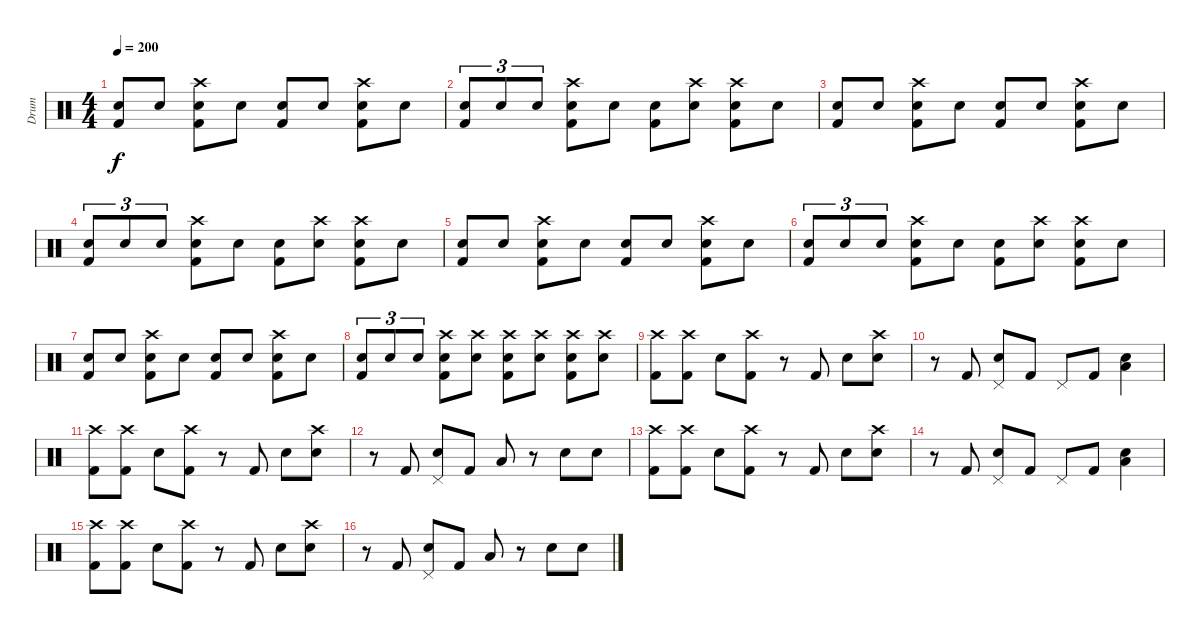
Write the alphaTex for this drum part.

\track ("Drum" "Drum") {instrument percussion}
\staff {score}
\articulation defaults
\ts (4 4)
\tempo 200
\clef neutral
\ks c
("Electric Snare (hit)" "Kick (hit) 2").8{dy f} "Electric Snare (hit)".8 ("Crash high (hit)" "Electric Snare (hit)" "Kick (hit) 2").8 "Electric Snare (hit)".8 ("Electric Snare (hit)" "Kick (hit) 2").8 "Electric Snare (hit)".8 ("Crash high (hit)" "Electric Snare (hit)" "Kick (hit) 2").8 "Electric Snare (hit)".8 |
("Electric Snare (hit)" "Kick (hit) 2").8{tu (3 2)} "Electric Snare (hit)".8{tu (3 2)} "Electric Snare (hit)".8{tu (3 2)} ("Crash high (hit)" "Electric Snare (hit)" "Kick (hit) 2").8 "Electric Snare (hit)".8 ("Electric Snare (hit)" "Kick (hit) 2").8 ("Crash high (hit)" "Electric Snare (hit)").8 ("Crash high (hit)" "Electric Snare (hit)" "Kick (hit) 2").8 "Electric Snare (hit)".8 |
("Electric Snare (hit)" "Kick (hit) 2").8 "Electric Snare (hit)".8 ("Crash high (hit)" "Electric Snare (hit)" "Kick (hit) 2").8 "Electric Snare (hit)".8 ("Electric Snare (hit)" "Kick (hit) 2").8 "Electric Snare (hit)".8 ("Crash high (hit)" "Electric Snare (hit)" "Kick (hit) 2").8 "Electric Snare (hit)".8 |
("Electric Snare (hit)" "Kick (hit) 2").8{tu (3 2)} "Electric Snare (hit)".8{tu (3 2)} "Electric Snare (hit)".8{tu (3 2)} ("Crash high (hit)" "Electric Snare (hit)" "Kick (hit) 2").8 "Electric Snare (hit)".8 ("Electric Snare (hit)" "Kick (hit) 2").8 ("Crash high (hit)" "Electric Snare (hit)").8 ("Crash high (hit)" "Electric Snare (hit)" "Kick (hit) 2").8 "Electric Snare (hit)".8 |
("Electric Snare (hit)" "Kick (hit) 2").8 "Electric Snare (hit)".8 ("Crash high (hit)" "Electric Snare (hit)" "Kick (hit) 2").8 "Electric Snare (hit)".8 ("Electric Snare (hit)" "Kick (hit) 2").8 "Electric Snare (hit)".8 ("Crash high (hit)" "Electric Snare (hit)" "Kick (hit) 2").8 "Electric Snare (hit)".8 |
("Electric Snare (hit)" "Kick (hit) 2").8{tu (3 2)} "Electric Snare (hit)".8{tu (3 2)} "Electric Snare (hit)".8{tu (3 2)} ("Crash high (hit)" "Electric Snare (hit)" "Kick (hit) 2").8 "Electric Snare (hit)".8 ("Electric Snare (hit)" "Kick (hit) 2").8 ("Crash high (hit)" "Electric Snare (hit)").8 ("Crash high (hit)" "Electric Snare (hit)" "Kick (hit) 2").8 "Electric Snare (hit)".8 |
("Electric Snare (hit)" "Kick (hit) 2").8 "Electric Snare (hit)".8 ("Crash high (hit)" "Electric Snare (hit)" "Kick (hit) 2").8 "Electric Snare (hit)".8 ("Electric Snare (hit)" "Kick (hit) 2").8 "Electric Snare (hit)".8 ("Crash high (hit)" "Electric Snare (hit)" "Kick (hit) 2").8 "Electric Snare (hit)".8 |
("Electric Snare (hit)" "Kick (hit) 2").8{tu (3 2)} "Electric Snare (hit)".8{tu (3 2)} "Electric Snare (hit)".8{tu (3 2)} ("Crash high (hit)" "Electric Snare (hit)" "Kick (hit) 2").8 ("Crash high (hit)" "Electric Snare (hit)").8 ("Crash high (hit)" "Electric Snare (hit)" "Kick (hit) 2").8 ("Crash high (hit)" "Electric Snare (hit)").8 ("Crash high (hit)" "Electric Snare (hit)" "Kick (hit) 2").8 ("Crash high (hit)" "Electric Snare (hit)").8 |
("Crash high (hit)" "Kick (hit) 2").8 ("Crash high (hit)" "Kick (hit) 2").8 "Electric Snare (hit)".8 ("Crash high (hit)" "Kick (hit) 2").8 r.8 "Kick (hit) 2".8 "Electric Snare (hit)".8 ("Crash high (hit)" "Electric Snare (hit)").8 |
r.8 "Kick (hit) 2".8 ("Pedal Hi-Hat (hit)" "Electric Snare (hit)").8 "Kick (hit) 2".8 "Pedal Hi-Hat (hit)".8 "Kick (hit) 2".8 ("Electric Snare (hit)" "Low Floor Tom (hit)").4 |
("Crash high (hit)" "Kick (hit) 2").8 ("Crash high (hit)" "Kick (hit) 2").8 "Electric Snare (hit)".8 ("Crash high (hit)" "Kick (hit) 2").8 r.8 "Kick (hit) 2".8 "Electric Snare (hit)".8 ("Crash high (hit)" "Electric Snare (hit)").8 |
r.8 "Kick (hit) 2".8 ("Pedal Hi-Hat (hit)" "Electric Snare (hit)").8 "Kick (hit) 2".8 "Low Floor Tom (hit)".8 r.8 "Electric Snare (hit)".8 "Electric Snare (hit)".8 |
("Crash high (hit)" "Kick (hit) 2").8 ("Crash high (hit)" "Kick (hit) 2").8 "Electric Snare (hit)".8 ("Crash high (hit)" "Kick (hit) 2").8 r.8 "Kick (hit) 2".8 "Electric Snare (hit)".8 ("Crash high (hit)" "Electric Snare (hit)").8 |
r.8 "Kick (hit) 2".8 ("Pedal Hi-Hat (hit)" "Electric Snare (hit)").8 "Kick (hit) 2".8 "Pedal Hi-Hat (hit)".8 "Kick (hit) 2".8 ("Electric Snare (hit)" "Low Floor Tom (hit)").4 |
("Crash high (hit)" "Kick (hit) 2").8 ("Crash high (hit)" "Kick (hit) 2").8 "Electric Snare (hit)".8 ("Crash high (hit)" "Kick (hit) 2").8 r.8 "Kick (hit) 2".8 "Electric Snare (hit)".8 ("Crash high (hit)" "Electric Snare (hit)").8 |
r.8 "Kick (hit) 2".8 ("Pedal Hi-Hat (hit)" "Electric Snare (hit)").8 "Kick (hit) 2".8 "Low Floor Tom (hit)".8 r.8 "Electric Snare (hit)".8 "Electric Snare (hit)".8
